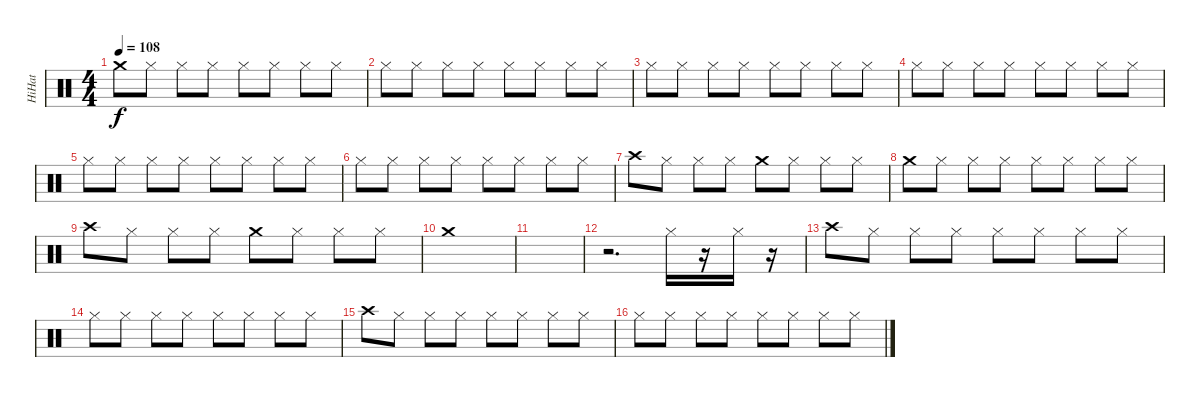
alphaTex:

\track ("HiHat" "HiHat") {instrument percussion}
\staff {score}
\articulation defaults
\ts (4 4)
\tempo 108
\clef neutral
\ks c "Crash medium (hit)".8{dy f} "Hi-Hat (closed)".8 "Hi-Hat (closed)".8 "Hi-Hat (closed)".8 "Hi-Hat (closed)".8 "Hi-Hat (closed)".8 "Hi-Hat (closed)".8 "Hi-Hat (closed)".8
|
"Hi-Hat (closed)".8 "Hi-Hat (closed)".8 "Hi-Hat (closed)".8 "Hi-Hat (closed)".8 "Hi-Hat (closed)".8 "Hi-Hat (closed)".8 "Hi-Hat (closed)".8 "Hi-Hat (closed)".8 |
"Hi-Hat (closed)".8 "Hi-Hat (closed)".8 "Hi-Hat (closed)".8 "Hi-Hat (closed)".8 "Hi-Hat (closed)".8 "Hi-Hat (closed)".8 "Hi-Hat (closed)".8 "Hi-Hat (closed)".8 |
"Hi-Hat (closed)".8 "Hi-Hat (closed)".8 "Hi-Hat (closed)".8 "Hi-Hat (closed)".8 "Hi-Hat (closed)".8 "Hi-Hat (closed)".8 "Hi-Hat (closed)".8 "Hi-Hat (closed)".8 |
"Hi-Hat (closed)".8 "Hi-Hat (closed)".8 "Hi-Hat (closed)".8 "Hi-Hat (closed)".8 "Hi-Hat (closed)".8 "Hi-Hat (closed)".8 "Hi-Hat (closed)".8 "Hi-Hat (closed)".8 |
"Hi-Hat (closed)".8 "Hi-Hat (closed)".8 "Hi-Hat (closed)".8 "Hi-Hat (closed)".8 "Hi-Hat (closed)".8 "Hi-Hat (closed)".8 "Hi-Hat (closed)".8 "Hi-Hat (closed)".8 |
"Crash high (hit)".8 "Hi-Hat (closed)".8 "Hi-Hat (closed)".8 "Hi-Hat (closed)".8 "Crash medium (hit)".8 "Hi-Hat (closed)".8 "Hi-Hat (closed)".8 "Hi-Hat (closed)".8 |
"Crash medium (hit)".8 "Hi-Hat (closed)".8 "Hi-Hat (closed)".8 "Hi-Hat (closed)".8 "Hi-Hat (closed)".8 "Hi-Hat (closed)".8 "Hi-Hat (closed)".8 "Hi-Hat (closed)".8 |
"Crash high (hit)".8 "Hi-Hat (closed)".8 "Hi-Hat (closed)".8 "Hi-Hat (closed)".8 "Crash medium (hit)".8 "Hi-Hat (closed)".8 "Hi-Hat (closed)".8 "Hi-Hat (closed)".8 |
"Crash medium (hit)".1 |
|
r.2{d} "Hi-Hat (closed)".16 r.16 "Hi-Hat (closed)".16 r.16 |
"Crash high (hit)".8 "Hi-Hat (closed)".8 "Hi-Hat (closed)".8 "Hi-Hat (closed)".8 "Hi-Hat (closed)".8 "Hi-Hat (closed)".8 "Hi-Hat (closed)".8 "Hi-Hat (closed)".8 |
"Hi-Hat (closed)".8 "Hi-Hat (closed)".8 "Hi-Hat (closed)".8 "Hi-Hat (closed)".8 "Hi-Hat (closed)".8 "Hi-Hat (closed)".8 "Hi-Hat (closed)".8 "Hi-Hat (closed)".8 |
"Crash high (hit)".8 "Hi-Hat (closed)".8 "Hi-Hat (closed)".8 "Hi-Hat (closed)".8 "Hi-Hat (closed)".8 "Hi-Hat (closed)".8 "Hi-Hat (closed)".8 "Hi-Hat (closed)".8 |
"Hi-Hat (closed)".8 "Hi-Hat (closed)".8 "Hi-Hat (closed)".8 "Hi-Hat (closed)".8 "Hi-Hat (closed)".8 "Hi-Hat (closed)".8 "Hi-Hat (closed)".8 "Hi-Hat (closed)".8
